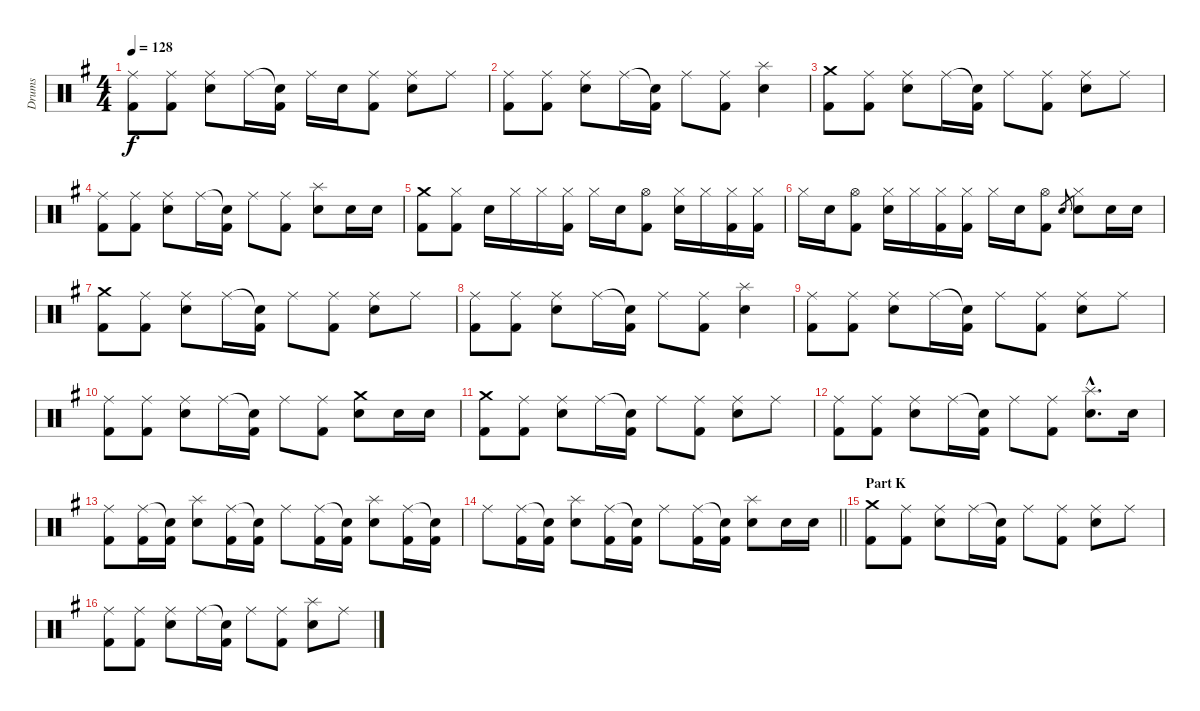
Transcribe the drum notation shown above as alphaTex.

\track ("Drums" "Drums") {instrument percussion}
\staff {score}
\articulation defaults
\ts (4 4)
\tempo 128
\clef neutral
\ks g
("Ride (middle)" "Kick (hit) 2").8{dy f} ("Ride (middle)" "Kick (hit) 2").8 ("Ride (middle)" "Electric Snare (hit)").8 "Ride (middle)".16 ("Snare (hit)"{t} "Kick (hit) 2").16 "Ride (middle)".16 "Electric Snare (hit)".16 ("Ride (middle)" "Kick (hit) 2").8 ("Ride (middle)" "Electric Snare (hit)").8 "Ride (middle)".8 |
("Ride (middle)" "Kick (hit) 2").8 ("Ride (middle)" "Kick (hit) 2").8 ("Ride (middle)" "Electric Snare (hit)").8 "Ride (middle)".16 ("Snare (hit)"{t} "Kick (hit) 2").16 "Ride (middle)".8 ("Ride (middle)" "Kick (hit) 2").8 ("Splash (hit)" "Electric Snare (hit)").4 |
("Crash medium (hit)" "Kick (hit) 2").8 ("Ride (middle)" "Kick (hit) 2").8 ("Ride (middle)" "Electric Snare (hit)").8 "Ride (middle)".16 ("Snare (hit)"{t} "Kick (hit) 2").16 "Ride (middle)".8 ("Ride (middle)" "Kick (hit) 2").8 ("Ride (middle)" "Electric Snare (hit)").8 "Ride (middle)".8 |
("Ride (middle)" "Kick (hit) 2").8 ("Ride (middle)" "Kick (hit) 2").8 ("Ride (middle)" "Electric Snare (hit)").8 "Ride (middle)".16 ("Snare (hit)"{t} "Kick (hit) 2").16 "Ride (middle)".8 ("Ride (middle)" "Kick (hit) 2").8 ("Splash (hit)" "Electric Snare (hit)").8 "Electric Snare (hit)".16 "Electric Snare (hit)".16 |
("Crash medium (hit)" "Kick (hit) 2").8 ("Hi-Hat (closed)" "Kick (hit) 2").8 "Electric Snare (hit)".16 "Hi-Hat (closed)".16 "Hi-Hat (closed)".16 ("Hi-Hat (closed)" "Kick (hit) 2").16 "Hi-Hat (closed)".16 "Electric Snare (hit)".16 ("Hi-Hat (open)" "Kick (hit) 2").8 ("Hi-Hat (closed)" "Electric Snare (hit)").16 "Hi-Hat (closed)".16 ("Hi-Hat (closed)" "Kick (hit) 2").16 ("Hi-Hat (closed)" "Kick (hit) 2").16 |
"Hi-Hat (closed)".16 "Electric Snare (hit)".16 ("Hi-Hat (open)" "Kick (hit) 2").8 ("Hi-Hat (closed)" "Electric Snare (hit)").16 "Hi-Hat (closed)".16 ("Hi-Hat (closed)" "Kick (hit) 2").16 ("Hi-Hat (closed)" "Kick (hit) 2").16 "Hi-Hat (closed)".16 "Electric Snare (hit)".16 ("Hi-Hat (open)" "Kick (hit) 2").8 "Electric Snare (hit)".8{gr} ("Hi-Hat (closed)" "Electric Snare (hit)").8 "Electric Snare (hit)".16 "Electric Snare (hit)".16 |
("Crash medium (hit)" "Kick (hit) 2").8 ("Ride (middle)" "Kick (hit) 2").8 ("Ride (middle)" "Electric Snare (hit)").8 "Ride (middle)".16 ("Snare (hit)"{t} "Kick (hit) 2").16 "Ride (middle)".8 ("Ride (middle)" "Kick (hit) 2").8 ("Ride (middle)" "Electric Snare (hit)").8 "Ride (middle)".8 |
("Ride (middle)" "Kick (hit) 2").8 ("Ride (middle)" "Kick (hit) 2").8 ("Ride (middle)" "Electric Snare (hit)").8 "Ride (middle)".16 ("Snare (hit)"{t} "Kick (hit) 2").16 "Ride (middle)".8 ("Ride (middle)" "Kick (hit) 2").8 ("Splash (hit)" "Electric Snare (hit)").4 |
("Ride (middle)" "Kick (hit) 2").8 ("Ride (middle)" "Kick (hit) 2").8 ("Ride (middle)" "Electric Snare (hit)").8 "Ride (middle)".16 ("Snare (hit)"{t} "Kick (hit) 2").16 "Ride (middle)".8 ("Ride (middle)" "Kick (hit) 2").8 ("Ride (middle)" "Electric Snare (hit)").8 "Ride (middle)".8 |
("Ride (middle)" "Kick (hit) 2").8 ("Ride (middle)" "Kick (hit) 2").8 ("Ride (middle)" "Electric Snare (hit)").8 "Ride (middle)".16 ("Snare (hit)"{t} "Kick (hit) 2").16 "Ride (middle)".8 ("Ride (middle)" "Kick (hit) 2").8 ("Crash medium (hit)" "Electric Snare (hit)").8 "Electric Snare (hit)".16 "Electric Snare (hit)".16 |
("Crash medium (hit)" "Kick (hit) 2").8 ("Ride (middle)" "Kick (hit) 2").8 ("Ride (middle)" "Electric Snare (hit)").8 "Ride (middle)".16 ("Snare (hit)"{t} "Kick (hit) 2").16 "Ride (middle)".8 ("Ride (middle)" "Kick (hit) 2").8 ("Ride (middle)" "Electric Snare (hit)").8 "Ride (middle)".8 |
("Ride (middle)" "Kick (hit) 2").8 ("Ride (middle)" "Kick (hit) 2").8 ("Ride (middle)" "Electric Snare (hit)").8 "Ride (middle)".16 ("Snare (hit)"{t} "Kick (hit) 2").16 "Ride (middle)".8 ("Ride (middle)" "Kick (hit) 2").8 ("Splash (hit)"{hac} "Electric Snare (hit)"{hac}).8{d} "Electric Snare (hit)".16 |
("Ride (middle)" "Kick (hit) 2").8 ("Ride (middle)" "Kick (hit) 2").16 ("Snare (hit)"{t} "Kick (hit) 2").16 ("Splash (hit)" "Electric Snare (hit)").8 ("Ride (middle)" "Kick (hit) 2").16 ("Snare (hit)"{t} "Kick (hit) 2").16 "Ride (middle)".8 ("Ride (middle)" "Kick (hit) 2").16 ("Snare (hit)"{t} "Kick (hit) 2").16 ("Splash (hit)" "Electric Snare (hit)").8 ("Ride (middle)" "Kick (hit) 2").16 ("Snare (hit)"{t} "Kick (hit) 2").16 |
\barLineRight lightlight "Ride (middle)".8
("Ride (middle)" "Kick (hit) 2").16 ("Snare (hit)"{t} "Kick (hit) 2").16 ("Splash (hit)" "Electric Snare (hit)").8 ("Ride (middle)" "Kick (hit) 2").16 ("Snare (hit)"{t} "Kick (hit) 2").16 "Ride (middle)".8 ("Ride (middle)" "Kick (hit) 2").16 ("Snare (hit)"{t} "Kick (hit) 2").16 ("Splash (hit)" "Electric Snare (hit)").8 "Electric Snare (hit)".16 "Electric Snare (hit)".16 |
\section ("" "Part K")
("Crash medium (hit)" "Kick (hit) 2").8 ("Ride (middle)" "Kick (hit) 2").8 ("Ride (middle)" "Electric Snare (hit)").8 "Ride (middle)".16 ("Snare (hit)"{t} "Kick (hit) 2").16 "Ride (middle)".8 ("Ride (middle)" "Kick (hit) 2").8 ("Ride (middle)" "Electric Snare (hit)").8 "Ride (middle)".8 |
("Ride (middle)" "Kick (hit) 2").8 ("Ride (middle)" "Kick (hit) 2").8 ("Ride (middle)" "Electric Snare (hit)").8 "Ride (middle)".16 ("Snare (hit)"{t} "Kick (hit) 2").16 "Ride (middle)".8 ("Ride (middle)" "Kick (hit) 2").8 ("Splash (hit)" "Electric Snare (hit)").8 "Ride (middle)".8
